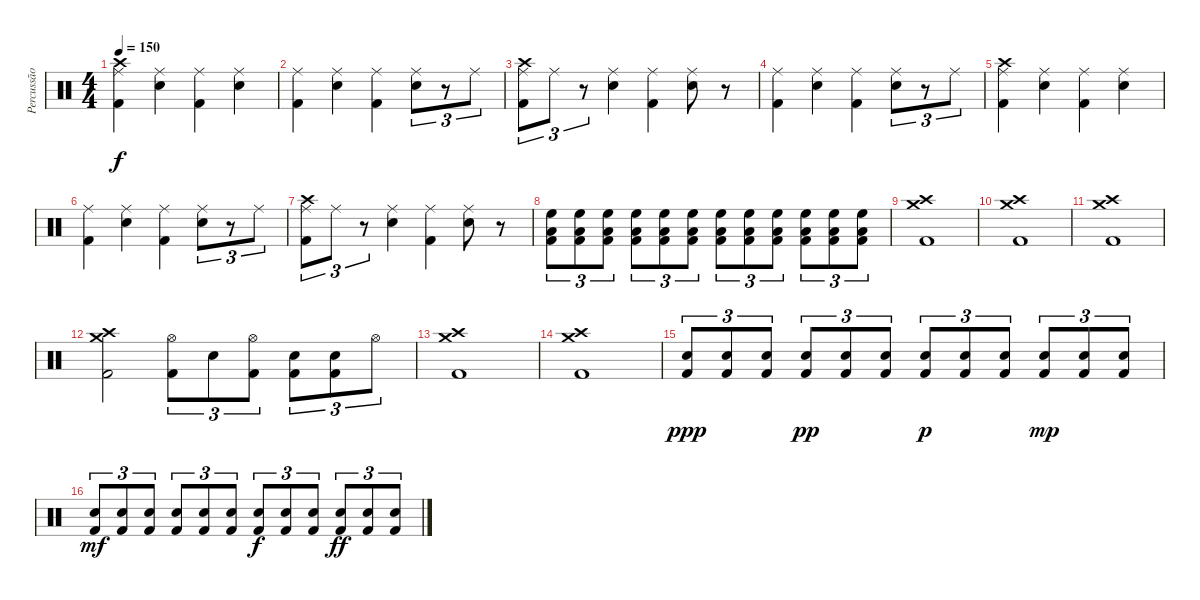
\track ("Percussão" "Percussão") {instrument percussion}
\staff {score}
\articulation defaults
\ts (4 4)
\tempo 150
\clef neutral
\ks c
("Crash high (hit)" "Ride (middle)" "Kick (hit) 2").4{dy f} ("Ride (middle)" "Snare (hit) 2").4 ("Ride (middle)" "Kick (hit) 2").4 ("Ride (middle)" "Snare (hit) 2").4 |
("Ride (middle)" "Kick (hit) 2").4 ("Ride (middle)" "Snare (hit) 2").4 ("Ride (middle)" "Kick (hit) 2").4 ("Ride (middle)" "Snare (hit) 2").8{tu (3 2)} r.8{tu (3 2)} "Ride (middle)".8{tu (3 2)} |
("Crash high (hit)" "Ride (middle)" "Kick (hit) 2").8{tu (3 2)} "Ride (middle)".8{tu (3 2)} r.8{tu (3 2)} ("Ride (middle)" "Snare (hit) 2").4 ("Ride (middle)" "Kick (hit) 2").4 ("Ride (middle)" "Snare (hit) 2").8 r.8 |
("Ride (middle)" "Kick (hit) 2").4 ("Ride (middle)" "Snare (hit) 2").4 ("Ride (middle)" "Kick (hit) 2").4 ("Ride (middle)" "Snare (hit) 2").8{tu (3 2)} r.8{tu (3 2)} "Ride (middle)".8{tu (3 2)} |
("Crash high (hit)" "Ride (middle)" "Kick (hit) 2").4 ("Ride (middle)" "Snare (hit) 2").4 ("Ride (middle)" "Kick (hit) 2").4 ("Ride (middle)" "Snare (hit) 2").4 |
("Ride (middle)" "Kick (hit) 2").4 ("Ride (middle)" "Snare (hit) 2").4 ("Ride (middle)" "Kick (hit) 2").4 ("Ride (middle)" "Snare (hit) 2").8{tu (3 2)} r.8{tu (3 2)} "Ride (middle)".8{tu (3 2)} |
("Crash high (hit)" "Ride (middle)" "Kick (hit) 2").8{tu (3 2)} "Ride (middle)".8{tu (3 2)} r.8{tu (3 2)} ("Ride (middle)" "Snare (hit) 2").4 ("Ride (middle)" "Kick (hit) 2").4 ("Ride (middle)" "Snare (hit) 2").8 r.8 |
("Low Floor Tom (hit)" "High Floor Tom (hit)" "Kick (hit) 2").8{tu (3 2)} ("Low Floor Tom (hit)" "High Floor Tom (hit)" "Kick (hit) 2").8{tu (3 2)} ("Low Floor Tom (hit)" "High Floor Tom (hit)" "Kick (hit) 2").8{tu (3 2)} ("Low Floor Tom (hit)" "High Floor Tom (hit)" "Kick (hit) 2").8{tu (3 2)} ("Low Floor Tom (hit)" "High Floor Tom (hit)" "Kick (hit) 2").8{tu (3 2)} ("Low Floor Tom (hit)" "High Floor Tom (hit)" "Kick (hit) 2").8{tu (3 2)} ("Low Floor Tom (hit)" "High Floor Tom (hit)" "Kick (hit) 2").8{tu (3 2)} ("Low Floor Tom (hit)" "High Floor Tom (hit)" "Kick (hit) 2").8{tu (3 2)} ("Low Floor Tom (hit)" "High Floor Tom (hit)" "Kick (hit) 2").8{tu (3 2)} ("Low Floor Tom (hit)" "High Floor Tom (hit)" "Kick (hit) 2").8{tu (3 2)} ("Low Floor Tom (hit)" "High Floor Tom (hit)" "Kick (hit) 2").8{tu (3 2)} ("Low Floor Tom (hit)" "High Floor Tom (hit)" "Kick (hit) 2").8{tu (3 2)} |
("Crash medium (hit)" "Crash high (hit)" "Kick (hit) 2").1 |
("Crash medium (hit)" "Crash high (hit)" "Kick (hit) 2").1 |
("Crash medium (hit)" "Crash high (hit)" "Kick (hit) 2").1 |
("Crash medium (hit)" "Crash high (hit)" "Kick (hit) 2").2 ("Hi-Hat (open)" "Kick (hit) 2").8{tu (3 2)} "Snare (hit) 2".8{tu (3 2)} ("Hi-Hat (open)" "Kick (hit) 2").8{tu (3 2)} ("Snare (hit) 2" "Kick (hit) 2").8{tu (3 2)} ("Snare (hit) 2" "Kick (hit) 2").8{tu (3 2)} "Hi-Hat (open)".8{tu (3 2)} |
("Crash medium (hit)" "Crash high (hit)" "Kick (hit) 2").1 |
("Crash medium (hit)" "Crash high (hit)" "Kick (hit) 2").1 |
("Kick (hit) 2" "Snare (hit) 2").8{tu (3 2) dy ppp} ("Kick (hit) 2" "Snare (hit) 2").8{tu (3 2)} ("Kick (hit) 2" "Snare (hit) 2").8{tu (3 2)} ("Kick (hit) 2" "Snare (hit) 2").8{tu (3 2) dy pp} ("Kick (hit) 2" "Snare (hit) 2").8{tu (3 2)} ("Kick (hit) 2" "Snare (hit) 2").8{tu (3 2)} ("Kick (hit) 2" "Snare (hit) 2").8{tu (3 2) dy p} ("Kick (hit) 2" "Snare (hit) 2").8{tu (3 2)} ("Kick (hit) 2" "Snare (hit) 2").8{tu (3 2)} ("Kick (hit) 2" "Snare (hit) 2").8{tu (3 2) dy mp} ("Kick (hit) 2" "Snare (hit) 2").8{tu (3 2)} ("Kick (hit) 2" "Snare (hit) 2").8{tu (3 2)} |
("Kick (hit) 2" "Snare (hit) 2").8{tu (3 2) dy mf} ("Kick (hit) 2" "Snare (hit) 2").8{tu (3 2)} ("Kick (hit) 2" "Snare (hit) 2").8{tu (3 2)} ("Kick (hit) 2" "Snare (hit) 2").8{tu (3 2)} ("Kick (hit) 2" "Snare (hit) 2").8{tu (3 2)} ("Kick (hit) 2" "Snare (hit) 2").8{tu (3 2)} ("Kick (hit) 2" "Snare (hit) 2").8{tu (3 2) dy f} ("Kick (hit) 2" "Snare (hit) 2").8{tu (3 2)} ("Kick (hit) 2" "Snare (hit) 2").8{tu (3 2)} ("Kick (hit) 2" "Snare (hit) 2").8{tu (3 2) dy ff} ("Kick (hit) 2" "Snare (hit) 2").8{tu (3 2)} ("Kick (hit) 2" "Snare (hit) 2").8{tu (3 2)}
